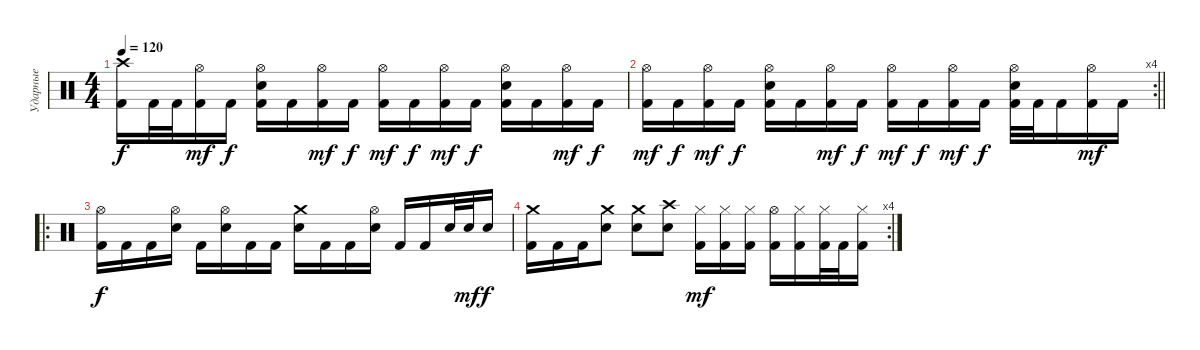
\track ("Ударные" "Ударные") {instrument percussion}
\staff {score}
\articulation defaults
\ts (4 4)
\tempo 120
\clef neutral
\ks c
("Crash high (hit)" "Kick (hit) 2").16{dy f} "Kick (hit) 2".32 "Kick (hit) 2".32 ("Hi-Hat (open)" "Kick (hit) 2").16{dy mf} "Kick (hit) 2".16{dy f} ("Hi-Hat (open)" "Electric Snare (hit)" "Kick (hit) 2").16 "Kick (hit) 2".16 ("Hi-Hat (open)" "Kick (hit) 2").16{dy mf} "Kick (hit) 2".16{dy f} ("Hi-Hat (open)" "Kick (hit) 2").16{dy mf} "Kick (hit) 2".16{dy f} ("Hi-Hat (open)" "Kick (hit) 2").16{dy mf} "Kick (hit) 2".16{dy f} ("Hi-Hat (open)" "Electric Snare (hit)" "Kick (hit) 2").16 "Kick (hit) 2".16 ("Hi-Hat (open)" "Kick (hit) 2").16{dy mf} "Kick (hit) 2".16{dy f} |
\rc 4
\barLineRight lightlight
("Hi-Hat (open)" "Kick (hit) 2").16{dy mf} "Kick (hit) 2".16{dy f} ("Hi-Hat (open)" "Kick (hit) 2").16{dy mf} "Kick (hit) 2".16{dy f} ("Hi-Hat (open)" "Electric Snare (hit)" "Kick (hit) 2").16 "Kick (hit) 2".16 ("Hi-Hat (open)" "Kick (hit) 2").16{dy mf} "Kick (hit) 2".16{dy f} ("Hi-Hat (open)" "Kick (hit) 2").16{dy mf} "Kick (hit) 2".16{dy f} ("Hi-Hat (open)" "Kick (hit) 2").16{dy mf} "Kick (hit) 2".16{dy f} ("Hi-Hat (open)" "Electric Snare (hit)" "Kick (hit) 2").32 "Kick (hit) 2".32 "Kick (hit) 2".16 ("Hi-Hat (open)" "Kick (hit) 2").16{dy mf} "Kick (hit) 2".16 |
\ro
("Hi-Hat (open)" "Kick (hit) 2").16{dy f} "Kick (hit) 2".16 "Kick (hit) 2".16 ("Hi-Hat (open)" "Electric Snare (hit)").16 "Kick (hit) 2".16 ("Hi-Hat (open)" "Electric Snare (hit)").16 "Kick (hit) 2".16 "Kick (hit) 2".16 ("Crash medium (hit)" "Electric Snare (hit)").16 "Kick (hit) 2".16 "Kick (hit) 2".16 ("Hi-Hat (open)" "Electric Snare (hit)").16 "Kick (hit) 2".16 "Kick (hit) 2".16 "Electric Snare (hit)".32 "Electric Snare (hit)".32{dy mf} "Electric Snare (hit)".16{dy f} |
\rc 4
("Crash medium (hit)" "Kick (hit) 2").16 "Kick (hit) 2".16 "Kick (hit) 2".16 ("Crash medium (hit)" "Electric Snare (hit)").8 ("Crash medium (hit)" "Electric Snare (hit)").8 ("Crash high (hit)" "Electric Snare (hit)").8 ("Hi-Hat (closed)" "Kick (hit) 2").16{dy mf} ("Hi-Hat (closed)" "Kick (hit) 2").16 ("Hi-Hat (closed)" "Kick (hit) 2").16 ("Hi-Hat (open)" "Kick (hit) 2").16 ("Hi-Hat (closed)" "Kick (hit) 2").16 ("Hi-Hat (closed)" "Kick (hit) 2").32 "Kick (hit) 2".32 ("Hi-Hat (closed)" "Kick (hit) 2").16
